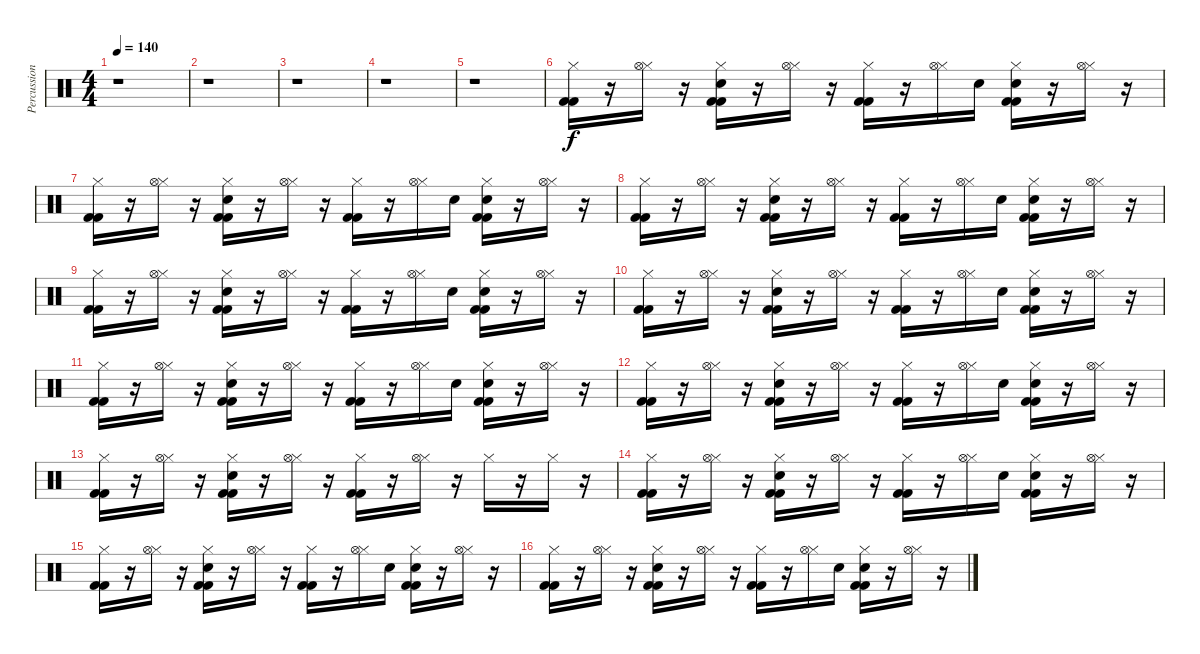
\track ("Percussion" "Percussion") {instrument percussion}
\staff {score}
\articulation defaults
\ts (4 4)
\tempo 140
\clef neutral
\ks c
r.1{dy f} |
r.1 |
r.1 |
r.1 |
r.1 |
("Hi-Hat (closed)" "Kick (hit) 2" "Kick (hit) 2").16 r.16 ("Hi-Hat (closed)" "Hi-Hat (open)").16 r.16 ("Hi-Hat (closed)" "Kick (hit) 2" "Kick (hit) 2" "Hand Clap (hit)").16 r.16 ("Hi-Hat (closed)" "Hi-Hat (open)").16 r.16 ("Hi-Hat (closed)" "Kick (hit) 2" "Kick (hit) 2").16 r.16 ("Hi-Hat (closed)" "Hi-Hat (open)").16 "Hand Clap (hit)".16 ("Hi-Hat (closed)" "Kick (hit) 2" "Kick (hit) 2" "Hand Clap (hit)").16 r.16 ("Hi-Hat (closed)" "Hi-Hat (open)").16 r.16 |
("Hi-Hat (closed)" "Kick (hit) 2" "Kick (hit) 2").16 r.16 ("Hi-Hat (closed)" "Hi-Hat (open)").16 r.16 ("Hi-Hat (closed)" "Kick (hit) 2" "Kick (hit) 2" "Hand Clap (hit)").16 r.16 ("Hi-Hat (closed)" "Hi-Hat (open)").16 r.16 ("Hi-Hat (closed)" "Kick (hit) 2" "Kick (hit) 2").16 r.16 ("Hi-Hat (closed)" "Hi-Hat (open)").16 "Hand Clap (hit)".16 ("Hi-Hat (closed)" "Kick (hit) 2" "Kick (hit) 2" "Hand Clap (hit)").16 r.16 ("Hi-Hat (closed)" "Hi-Hat (open)").16 r.16 |
("Hi-Hat (closed)" "Kick (hit) 2" "Kick (hit) 2").16 r.16 ("Hi-Hat (closed)" "Hi-Hat (open)").16 r.16 ("Hi-Hat (closed)" "Kick (hit) 2" "Kick (hit) 2" "Hand Clap (hit)").16 r.16 ("Hi-Hat (closed)" "Hi-Hat (open)").16 r.16 ("Hi-Hat (closed)" "Kick (hit) 2" "Kick (hit) 2").16 r.16 ("Hi-Hat (closed)" "Hi-Hat (open)").16 "Hand Clap (hit)".16 ("Hi-Hat (closed)" "Kick (hit) 2" "Kick (hit) 2" "Hand Clap (hit)").16 r.16 ("Hi-Hat (closed)" "Hi-Hat (open)").16 r.16 |
("Hi-Hat (closed)" "Kick (hit) 2" "Kick (hit) 2").16 r.16 ("Hi-Hat (closed)" "Hi-Hat (open)").16 r.16 ("Hi-Hat (closed)" "Kick (hit) 2" "Kick (hit) 2" "Hand Clap (hit)").16 r.16 ("Hi-Hat (closed)" "Hi-Hat (open)").16 r.16 ("Hi-Hat (closed)" "Kick (hit) 2" "Kick (hit) 2").16 r.16 ("Hi-Hat (closed)" "Hi-Hat (open)").16 "Hand Clap (hit)".16 ("Hi-Hat (closed)" "Kick (hit) 2" "Kick (hit) 2" "Hand Clap (hit)").16 r.16 ("Hi-Hat (closed)" "Hi-Hat (open)").16 r.16 |
("Hi-Hat (closed)" "Kick (hit) 2" "Kick (hit) 2").16 r.16 ("Hi-Hat (closed)" "Hi-Hat (open)").16 r.16 ("Hi-Hat (closed)" "Kick (hit) 2" "Kick (hit) 2" "Hand Clap (hit)").16 r.16 ("Hi-Hat (closed)" "Hi-Hat (open)").16 r.16 ("Hi-Hat (closed)" "Kick (hit) 2" "Kick (hit) 2").16 r.16 ("Hi-Hat (closed)" "Hi-Hat (open)").16 "Hand Clap (hit)".16 ("Hi-Hat (closed)" "Kick (hit) 2" "Kick (hit) 2" "Hand Clap (hit)").16 r.16 ("Hi-Hat (closed)" "Hi-Hat (open)").16 r.16 |
("Hi-Hat (closed)" "Kick (hit) 2" "Kick (hit) 2").16 r.16 ("Hi-Hat (closed)" "Hi-Hat (open)").16 r.16 ("Hi-Hat (closed)" "Kick (hit) 2" "Kick (hit) 2" "Hand Clap (hit)").16 r.16 ("Hi-Hat (closed)" "Hi-Hat (open)").16 r.16 ("Hi-Hat (closed)" "Kick (hit) 2" "Kick (hit) 2").16 r.16 ("Hi-Hat (closed)" "Hi-Hat (open)").16 "Hand Clap (hit)".16 ("Hi-Hat (closed)" "Kick (hit) 2" "Kick (hit) 2" "Hand Clap (hit)").16 r.16 ("Hi-Hat (closed)" "Hi-Hat (open)").16 r.16 |
("Hi-Hat (closed)" "Kick (hit) 2" "Kick (hit) 2").16 r.16 ("Hi-Hat (closed)" "Hi-Hat (open)").16 r.16 ("Hi-Hat (closed)" "Kick (hit) 2" "Kick (hit) 2" "Hand Clap (hit)").16 r.16 ("Hi-Hat (closed)" "Hi-Hat (open)").16 r.16 ("Hi-Hat (closed)" "Kick (hit) 2" "Kick (hit) 2").16 r.16 ("Hi-Hat (closed)" "Hi-Hat (open)").16 "Hand Clap (hit)".16 ("Hi-Hat (closed)" "Kick (hit) 2" "Kick (hit) 2" "Hand Clap (hit)").16 r.16 ("Hi-Hat (closed)" "Hi-Hat (open)").16 r.16 |
("Hi-Hat (closed)" "Kick (hit) 2" "Kick (hit) 2").16 r.16 ("Hi-Hat (closed)" "Hi-Hat (open)").16 r.16 ("Hi-Hat (closed)" "Kick (hit) 2" "Kick (hit) 2" "Hand Clap (hit)").16 r.16 ("Hi-Hat (closed)" "Hi-Hat (open)").16 r.16 ("Hi-Hat (closed)" "Kick (hit) 2" "Kick (hit) 2").16 r.16 ("Hi-Hat (closed)" "Hi-Hat (open)").16 r.16 "Hi-Hat (closed)".16 r.16 "Hi-Hat (closed)".16 r.16 |
("Hi-Hat (closed)" "Kick (hit) 2" "Kick (hit) 2").16 r.16 ("Hi-Hat (closed)" "Hi-Hat (open)").16 r.16 ("Hi-Hat (closed)" "Kick (hit) 2" "Kick (hit) 2" "Hand Clap (hit)").16 r.16 ("Hi-Hat (closed)" "Hi-Hat (open)").16 r.16 ("Hi-Hat (closed)" "Kick (hit) 2" "Kick (hit) 2").16 r.16 ("Hi-Hat (closed)" "Hi-Hat (open)").16 "Hand Clap (hit)".16 ("Hi-Hat (closed)" "Kick (hit) 2" "Kick (hit) 2" "Hand Clap (hit)").16 r.16 ("Hi-Hat (closed)" "Hi-Hat (open)").16 r.16 |
("Hi-Hat (closed)" "Kick (hit) 2" "Kick (hit) 2").16 r.16 ("Hi-Hat (closed)" "Hi-Hat (open)").16 r.16 ("Hi-Hat (closed)" "Kick (hit) 2" "Kick (hit) 2" "Hand Clap (hit)").16 r.16 ("Hi-Hat (closed)" "Hi-Hat (open)").16 r.16 ("Hi-Hat (closed)" "Kick (hit) 2" "Kick (hit) 2").16 r.16 ("Hi-Hat (closed)" "Hi-Hat (open)").16 "Hand Clap (hit)".16 ("Hi-Hat (closed)" "Kick (hit) 2" "Kick (hit) 2" "Hand Clap (hit)").16 r.16 ("Hi-Hat (closed)" "Hi-Hat (open)").16 r.16 |
("Hi-Hat (closed)" "Kick (hit) 2" "Kick (hit) 2").16 r.16 ("Hi-Hat (closed)" "Hi-Hat (open)").16 r.16 ("Hi-Hat (closed)" "Kick (hit) 2" "Kick (hit) 2" "Hand Clap (hit)").16 r.16 ("Hi-Hat (closed)" "Hi-Hat (open)").16 r.16 ("Hi-Hat (closed)" "Kick (hit) 2" "Kick (hit) 2").16 r.16 ("Hi-Hat (closed)" "Hi-Hat (open)").16 "Hand Clap (hit)".16 ("Hi-Hat (closed)" "Kick (hit) 2" "Kick (hit) 2" "Hand Clap (hit)").16 r.16 ("Hi-Hat (closed)" "Hi-Hat (open)").16 r.16
